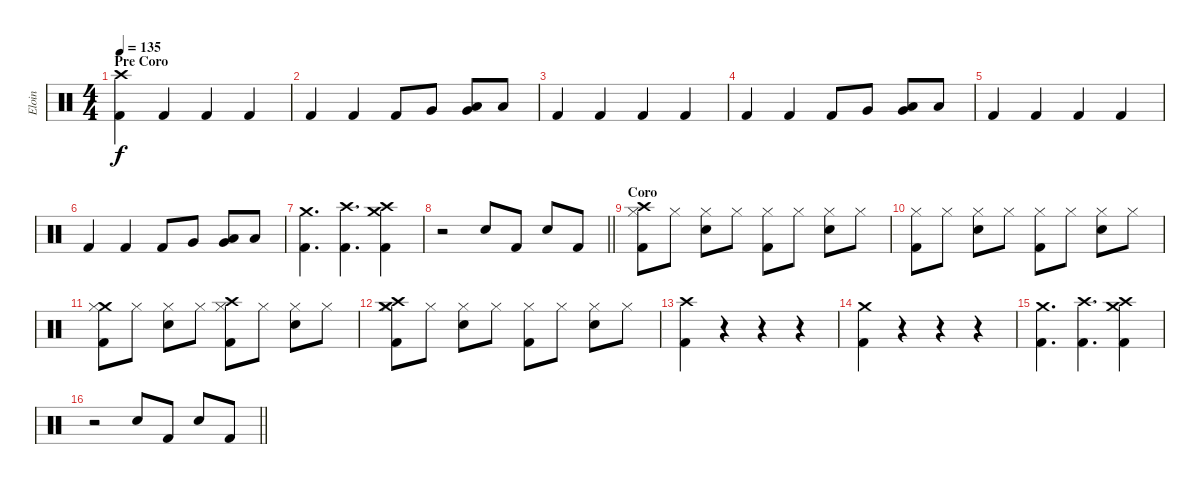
\track ("Eloin" "Eloin") {instrument percussion}
\staff {score}
\articulation defaults
\ts (4 4)
\section ("" "Pre Coro")
\tempo 135
\clef neutral
\ks c
("Crash high (hit)" "Kick (hit) 2").4{dy f} "Kick (hit) 2".4 "Kick (hit) 2".4 "Kick (hit) 2".4 |
"Kick (hit) 2".4 "Kick (hit) 2".4 "Kick (hit) 2".8 "Very Low Tom (hit)".8 ("Low Floor Tom (hit)" "Very Low Tom (hit)").8 "Low Floor Tom (hit)".8 |
"Kick (hit) 2".4 "Kick (hit) 2".4 "Kick (hit) 2".4 "Kick (hit) 2".4 |
"Kick (hit) 2".4 "Kick (hit) 2".4 "Kick (hit) 2".8 "Very Low Tom (hit)".8 ("Low Floor Tom (hit)" "Very Low Tom (hit)").8 "Low Floor Tom (hit)".8 |
"Kick (hit) 2".4 "Kick (hit) 2".4 "Kick (hit) 2".4 "Kick (hit) 2".4 |
"Kick (hit) 2".4 "Kick (hit) 2".4 "Kick (hit) 2".8 "Very Low Tom (hit)".8 ("Low Floor Tom (hit)" "Very Low Tom (hit)").8 "Low Floor Tom (hit)".8 |
("Kick (hit) 2" "Crash medium (hit)").4{d} ("Kick (hit) 2" "Crash high (hit)").4{d} ("Kick (hit) 2" "Crash high (hit)" "Crash medium (hit)").4 |
\barLineRight lightlight
r.2 "Electric Snare (hit)".8 "Kick (hit) 2".8 "Electric Snare (hit)".8 "Kick (hit) 2".8 |
\section ("" "Coro")
("Crash high (hit)" "Hi-Hat (closed)" "Kick (hit) 2").8 "Hi-Hat (closed)".8 ("Hi-Hat (closed)" "Electric Snare (hit)").8 "Hi-Hat (closed)".8 ("Hi-Hat (closed)" "Kick (hit) 2").8 "Hi-Hat (closed)".8 ("Hi-Hat (closed)" "Electric Snare (hit)").8 "Hi-Hat (closed)".8 |
("Hi-Hat (closed)" "Kick (hit) 2").8 "Hi-Hat (closed)".8 ("Hi-Hat (closed)" "Electric Snare (hit)").8 "Hi-Hat (closed)".8 ("Hi-Hat (closed)" "Kick (hit) 2").8 "Hi-Hat (closed)".8 ("Hi-Hat (closed)" "Electric Snare (hit)").8 "Hi-Hat (closed)".8 |
("Crash medium (hit)" "Hi-Hat (closed)" "Kick (hit) 2").8 "Hi-Hat (closed)".8 ("Hi-Hat (closed)" "Electric Snare (hit)").8 "Hi-Hat (closed)".8 ("Crash high (hit)" "Hi-Hat (closed)" "Kick (hit) 2").8 "Hi-Hat (closed)".8 ("Hi-Hat (closed)" "Electric Snare (hit)").8 "Hi-Hat (closed)".8 |
("Crash medium (hit)" "Crash high (hit)" "Hi-Hat (closed)" "Kick (hit) 2").8 "Hi-Hat (closed)".8 ("Hi-Hat (closed)" "Electric Snare (hit)").8 "Hi-Hat (closed)".8 ("Hi-Hat (closed)" "Kick (hit) 2").8 "Hi-Hat (closed)".8 ("Hi-Hat (closed)" "Electric Snare (hit)").8 "Hi-Hat (closed)".8 |
("Crash high (hit)" "Kick (hit) 2").4 r.4 r.4 r.4 |
("Crash medium (hit)" "Kick (hit) 2").4 r.4 r.4 r.4 |
("Kick (hit) 2" "Crash medium (hit)").4{d} ("Kick (hit) 2" "Crash high (hit)").4{d} ("Kick (hit) 2" "Crash high (hit)" "Crash medium (hit)").4 |
\barLineRight lightlight
r.2 "Electric Snare (hit)".8 "Kick (hit) 2".8 "Electric Snare (hit)".8 "Kick (hit) 2".8
